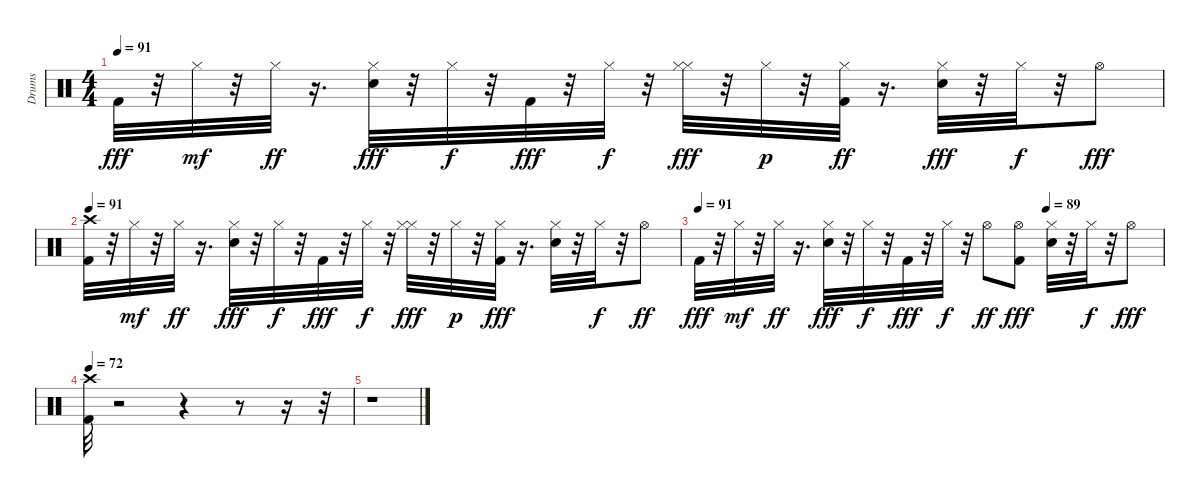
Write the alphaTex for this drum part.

\track ("Drums" "Drums") {instrument percussion}
\staff {score}
\articulation defaults
\ts (4 4)
\tempo 91
\clef neutral
\ks c "Kick (hit) 2".32{dy fff}
r.32 "Hi-Hat (closed)".32{dy mf} r.32 "Hi-Hat (closed)".32{dy ff} r.16{d} ("Snare (hit) 2" "Hi-Hat (closed)").32{dy fff} r.32 "Hi-Hat (closed)".32{dy f} r.32 "Kick (hit) 2".32{dy fff} r.32 "Hi-Hat (closed)".32{dy f} r.32 ("Hi-Hat (closed)" "Hi-Hat (closed)").32{dy fff} r.32 "Hi-Hat (closed)".32{dy p} r.32 ("Kick (hit) 2" "Hi-Hat (closed)").32{dy ff} r.16{d} ("Hi-Hat (closed)" "Snare (hit) 2").32{dy fff} r.32 "Hi-Hat (closed)".32{dy f} r.32 "Hi-Hat (open)".8{dy fff} |
\tempo 91
("Crash high (hit)" "Kick (hit) 2").32 r.32 "Hi-Hat (closed)".32{dy mf} r.32 "Hi-Hat (closed)".32{dy ff} r.16{d} ("Snare (hit) 2" "Hi-Hat (closed)").32{dy fff} r.32 "Hi-Hat (closed)".32{dy f} r.32 "Kick (hit) 2".32{dy fff} r.32 "Hi-Hat (closed)".32{dy f} r.32 ("Hi-Hat (closed)" "Hi-Hat (closed)").32{dy fff} r.32 "Hi-Hat (closed)".32{dy p} r.32 ("Hi-Hat (closed)" "Kick (hit) 2").32{dy fff} r.16{d} ("Hi-Hat (closed)" "Snare (hit) 2").32 r.32 "Hi-Hat (closed)".32{dy f} r.32 "Hi-Hat (open)".8{dy ff} |
\tempo 91
\tempo (89 0.75)
"Kick (hit) 2".32{dy fff} r.32 "Hi-Hat (closed)".32{dy mf} r.32 "Hi-Hat (closed)".32{dy ff} r.16{d} ("Hi-Hat (closed)" "Snare (hit) 2").32{dy fff} r.32 "Hi-Hat (closed)".32{dy f} r.32 "Kick (hit) 2".32{dy fff} r.32 "Hi-Hat (closed)".32{dy f} r.32 "Hi-Hat (open)".8{dy ff} ("Hi-Hat (open)" "Kick (hit) 2").8{dy fff} ("Snare (hit) 2" "Hi-Hat (closed)").32 r.32 "Hi-Hat (closed)".32{dy f} r.32 "Hi-Hat (open)".8{dy fff} |
\tempo 72
("Crash high (hit)" "Kick (hit) 2").32 r.2 r.4 r.8 r.16 r.32 |
r.1
